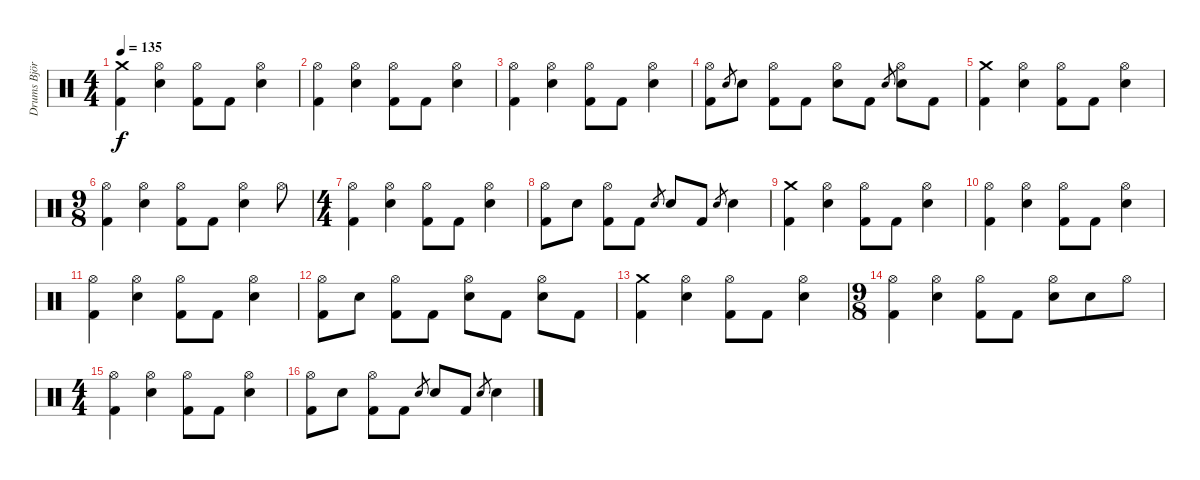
\track ("Drums Björn Fryklund" "Drums Björ") {instrument percussion}
\staff {score}
\articulation defaults
\ts (4 4)
\tempo 135
\clef neutral
\ks c
("Crash medium (hit)" "Kick (hit) 2").4{dy f} ("Hi-Hat (open)" "Electric Snare (hit)").4 ("Hi-Hat (open)" "Kick (hit) 2").8 "Kick (hit) 2".8 ("Hi-Hat (open)" "Electric Snare (hit)").4 |
("Hi-Hat (open)" "Kick (hit) 2").4 ("Hi-Hat (open)" "Electric Snare (hit)").4 ("Hi-Hat (open)" "Kick (hit) 2").8 "Kick (hit) 2".8 ("Hi-Hat (open)" "Electric Snare (hit)").4 |
("Hi-Hat (open)" "Kick (hit) 2").4 ("Hi-Hat (open)" "Electric Snare (hit)").4 ("Hi-Hat (open)" "Kick (hit) 2").8 "Kick (hit) 2".8 ("Hi-Hat (open)" "Electric Snare (hit)").4 |
("Hi-Hat (open)" "Kick (hit) 2").8 "Electric Snare (hit)".8{gr} "Electric Snare (hit)".8 ("Hi-Hat (open)" "Kick (hit) 2").8 "Kick (hit) 2".8 ("Hi-Hat (open)" "Electric Snare (hit)").8 "Kick (hit) 2".8 "Electric Snare (hit)".8{gr} ("Hi-Hat (open)" "Electric Snare (hit)").8 "Kick (hit) 2".8 |
("Crash medium (hit)" "Kick (hit) 2").4 ("Hi-Hat (open)" "Electric Snare (hit)").4 ("Hi-Hat (open)" "Kick (hit) 2").8 "Kick (hit) 2".8 ("Hi-Hat (open)" "Electric Snare (hit)").4 |
\ts (9 8)
("Hi-Hat (open)" "Kick (hit) 2").4 ("Hi-Hat (open)" "Electric Snare (hit)").4 ("Hi-Hat (open)" "Kick (hit) 2").8 "Kick (hit) 2".8 ("Hi-Hat (open)" "Electric Snare (hit)").4 "Hi-Hat (open)".8 |
\ts (4 4)
("Hi-Hat (open)" "Kick (hit) 2").4 ("Hi-Hat (open)" "Electric Snare (hit)").4 ("Hi-Hat (open)" "Kick (hit) 2").8 "Kick (hit) 2".8 ("Hi-Hat (open)" "Electric Snare (hit)").4 |
("Hi-Hat (open)" "Kick (hit) 2").8 "Electric Snare (hit)".8 ("Hi-Hat (open)" "Kick (hit) 2").8 "Kick (hit) 2".8 "Electric Snare (hit)".8{gr} "Electric Snare (hit)".8 "Kick (hit) 2".8 "Electric Snare (hit)".8{gr} "Electric Snare (hit)".4 |
("Crash medium (hit)" "Kick (hit) 2").4 ("Hi-Hat (open)" "Electric Snare (hit)").4 ("Hi-Hat (open)" "Kick (hit) 2").8 "Kick (hit) 2".8 ("Hi-Hat (open)" "Electric Snare (hit)").4 |
("Hi-Hat (open)" "Kick (hit) 2").4 ("Hi-Hat (open)" "Electric Snare (hit)").4 ("Hi-Hat (open)" "Kick (hit) 2").8 "Kick (hit) 2".8 ("Hi-Hat (open)" "Electric Snare (hit)").4 |
("Hi-Hat (open)" "Kick (hit) 2").4 ("Hi-Hat (open)" "Electric Snare (hit)").4 ("Hi-Hat (open)" "Kick (hit) 2").8 "Kick (hit) 2".8 ("Hi-Hat (open)" "Electric Snare (hit)").4 |
("Hi-Hat (open)" "Kick (hit) 2").8 "Electric Snare (hit)".8 ("Hi-Hat (open)" "Kick (hit) 2").8 "Kick (hit) 2".8 ("Hi-Hat (open)" "Electric Snare (hit)").8 "Kick (hit) 2".8 ("Hi-Hat (open)" "Electric Snare (hit)").8 "Kick (hit) 2".8 |
("Crash medium (hit)" "Kick (hit) 2").4 ("Hi-Hat (open)" "Electric Snare (hit)").4 ("Hi-Hat (open)" "Kick (hit) 2").8 "Kick (hit) 2".8 ("Hi-Hat (open)" "Electric Snare (hit)").4 |
\ts (9 8)
("Hi-Hat (open)" "Kick (hit) 2").4 ("Hi-Hat (open)" "Electric Snare (hit)").4 ("Hi-Hat (open)" "Kick (hit) 2").8 "Kick (hit) 2".8 ("Hi-Hat (open)" "Electric Snare (hit)").8 "Electric Snare (hit)".8 "Hi-Hat (open)".8 |
\ts (4 4)
("Hi-Hat (open)" "Kick (hit) 2").4 ("Hi-Hat (open)" "Electric Snare (hit)").4 ("Hi-Hat (open)" "Kick (hit) 2").8 "Kick (hit) 2".8 ("Hi-Hat (open)" "Electric Snare (hit)").4 |
("Hi-Hat (open)" "Kick (hit) 2").8 "Electric Snare (hit)".8 ("Hi-Hat (open)" "Kick (hit) 2").8 "Kick (hit) 2".8 "Electric Snare (hit)".8{gr} "Electric Snare (hit)".8 "Kick (hit) 2".8 "Electric Snare (hit)".8{gr} "Electric Snare (hit)".4
